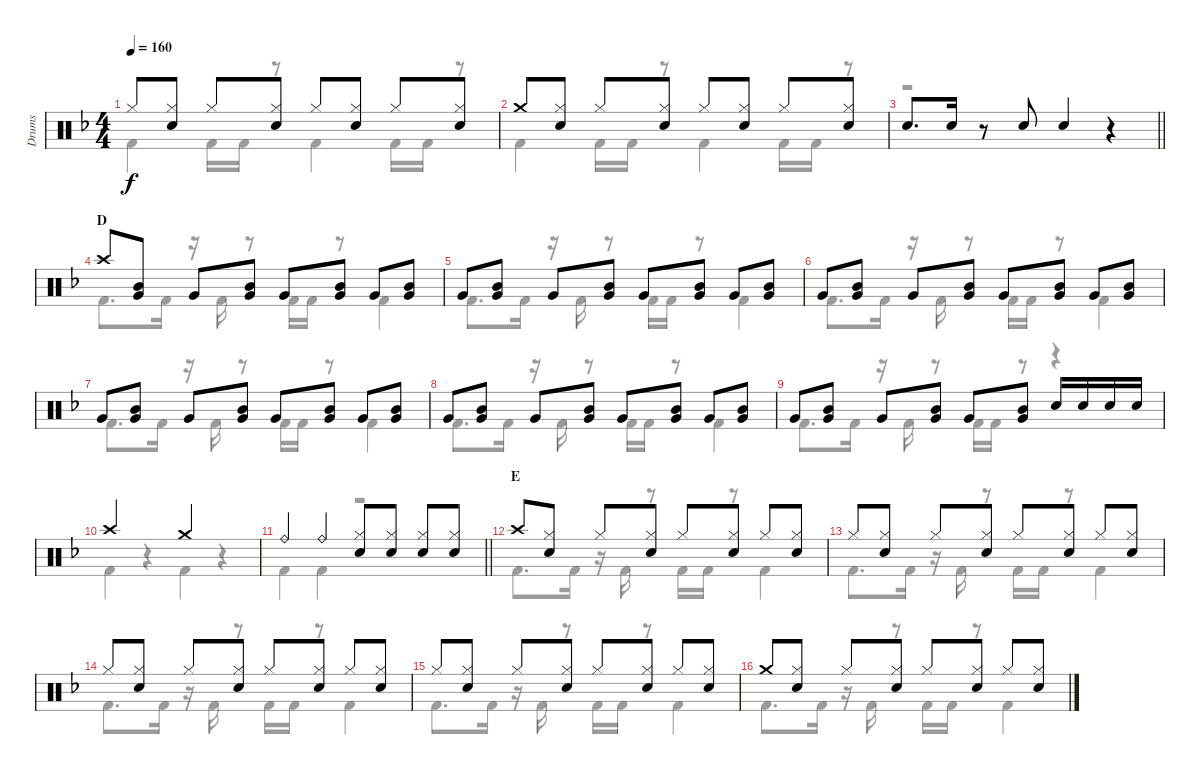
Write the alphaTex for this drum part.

\track ("Drums" "Drums") {instrument percussion}
\staff {score}
\articulation defaults
\voice
\ts (4 4)
\tempo 160
\clef neutral
\ks f "Hi-Hat (closed)".8{dy f}
("Hi-Hat (closed)" "Snare (hit) 2").8 "Hi-Hat (closed)".8 ("Hi-Hat (closed)" "Snare (hit) 2").8 "Hi-Hat (closed)".8 ("Hi-Hat (closed)" "Snare (hit) 2").8 "Hi-Hat (closed)".8 ("Hi-Hat (closed)" "Snare (hit) 2").8 |
"Crash medium (hit)".8 ("Hi-Hat (closed)" "Snare (hit) 2").8 "Hi-Hat (closed)".8 ("Hi-Hat (closed)" "Snare (hit) 2").8 "Hi-Hat (closed)".8 ("Hi-Hat (closed)" "Snare (hit) 2").8 "Hi-Hat (closed)".8 ("Hi-Hat (closed)" "Snare (hit) 2").8 |
\barLineRight lightlight "Snare (hit) 2".8{d} "Snare (hit) 2".16
r.8 "Snare (hit) 2".8 "Snare (hit) 2".4 r.4 |
\section ("" "D")
"Crash high (hit)".8 ("Mid Tom (hit)" "Very Low Tom (hit)").8 "Very Low Tom (hit)".8 ("Mid Tom (hit)" "Very Low Tom (hit)").8 "Very Low Tom (hit)".8 ("Mid Tom (hit)" "Very Low Tom (hit)").8 "Very Low Tom (hit)".8 ("Mid Tom (hit)" "Very Low Tom (hit)").8 |
"Very Low Tom (hit)".8 ("Mid Tom (hit)" "Very Low Tom (hit)").8 "Very Low Tom (hit)".8 ("Mid Tom (hit)" "Very Low Tom (hit)").8 "Very Low Tom (hit)".8 ("Mid Tom (hit)" "Very Low Tom (hit)").8 "Very Low Tom (hit)".8 ("Mid Tom (hit)" "Very Low Tom (hit)").8 |
"Very Low Tom (hit)".8 ("Mid Tom (hit)" "Very Low Tom (hit)").8 "Very Low Tom (hit)".8 ("Mid Tom (hit)" "Very Low Tom (hit)").8 "Very Low Tom (hit)".8 ("Mid Tom (hit)" "Very Low Tom (hit)").8 "Very Low Tom (hit)".8 ("Mid Tom (hit)" "Very Low Tom (hit)").8 |
"Very Low Tom (hit)".8 ("Mid Tom (hit)" "Very Low Tom (hit)").8 "Very Low Tom (hit)".8 ("Mid Tom (hit)" "Very Low Tom (hit)").8 "Very Low Tom (hit)".8 ("Mid Tom (hit)" "Very Low Tom (hit)").8 "Very Low Tom (hit)".8 ("Mid Tom (hit)" "Very Low Tom (hit)").8 |
"Very Low Tom (hit)".8 ("Mid Tom (hit)" "Very Low Tom (hit)").8 "Very Low Tom (hit)".8 ("Mid Tom (hit)" "Very Low Tom (hit)").8 "Very Low Tom (hit)".8 ("Mid Tom (hit)" "Very Low Tom (hit)").8 "Very Low Tom (hit)".8 ("Mid Tom (hit)" "Very Low Tom (hit)").8 |
"Very Low Tom (hit)".8 ("Mid Tom (hit)" "Very Low Tom (hit)").8 "Very Low Tom (hit)".8 ("Mid Tom (hit)" "Very Low Tom (hit)").8 "Very Low Tom (hit)".8 ("Mid Tom (hit)" "Very Low Tom (hit)").8 "Snare (hit) 2".16 "Snare (hit) 2".16 "Snare (hit) 2".16 "Snare (hit) 2".16 |
"Crash high (hit)".2 "Crash medium (hit)".2 |
\barLineRight lightlight "Ride (bell)".4 "Ride (bell)".4
("Hi-Hat (closed)" "Snare (hit) 2").8 ("Hi-Hat (closed)" "Snare (hit) 2").8 ("Hi-Hat (closed)" "Snare (hit) 2").8 ("Hi-Hat (closed)" "Snare (hit) 2").8 |
\section ("" "E")
"Crash high (hit)".8 ("Hi-Hat (closed)" "Snare (hit) 2").8 "Hi-Hat (closed)".8 ("Hi-Hat (closed)" "Snare (hit) 2").8 "Hi-Hat (closed)".8 ("Hi-Hat (closed)" "Snare (hit) 2").8 "Hi-Hat (closed)".8 ("Hi-Hat (closed)" "Snare (hit) 2").8 |
"Hi-Hat (closed)".8 ("Hi-Hat (closed)" "Snare (hit) 2").8 "Hi-Hat (closed)".8 ("Hi-Hat (closed)" "Snare (hit) 2").8 "Hi-Hat (closed)".8 ("Hi-Hat (closed)" "Snare (hit) 2").8 "Hi-Hat (closed)".8 ("Hi-Hat (closed)" "Snare (hit) 2").8 |
"Hi-Hat (closed)".8 ("Hi-Hat (closed)" "Snare (hit) 2").8 "Hi-Hat (closed)".8 ("Hi-Hat (closed)" "Snare (hit) 2").8 "Hi-Hat (closed)".8 ("Hi-Hat (closed)" "Snare (hit) 2").8 "Hi-Hat (closed)".8 ("Hi-Hat (closed)" "Snare (hit) 2").8 |
"Hi-Hat (closed)".8 ("Hi-Hat (closed)" "Snare (hit) 2").8 "Hi-Hat (closed)".8 ("Hi-Hat (closed)" "Snare (hit) 2").8 "Hi-Hat (closed)".8 ("Hi-Hat (closed)" "Snare (hit) 2").8 "Hi-Hat (closed)".8 ("Hi-Hat (closed)" "Snare (hit) 2").8 |
"Crash medium (hit)".8 ("Hi-Hat (closed)" "Snare (hit) 2").8 "Hi-Hat (closed)".8 ("Hi-Hat (closed)" "Snare (hit) 2").8 "Hi-Hat (closed)".8 ("Hi-Hat (closed)" "Snare (hit) 2").8 "Hi-Hat (closed)".8 ("Hi-Hat (closed)" "Snare (hit) 2").8
\voice
\clef neutral
\ottava regular
\simile none
\ks f "Kick (hit) 2".4{dy f} "Kick (hit) 2".16 "Kick (hit) 2".16
r.8 "Kick (hit) 2".4 "Kick (hit) 2".16 "Kick (hit) 2".16 r.8 |
"Kick (hit) 2".4 "Kick (hit) 2".16 "Kick (hit) 2".16 r.8 "Kick (hit) 2".4 "Kick (hit) 2".16 "Kick (hit) 2".16 r.8 |
\barLineRight lightlight
r.1 |
"Kick (hit) 2".8{d} "Kick (hit) 2".16 r.16 "Kick (hit) 2".16 r.8 "Kick (hit) 2".16 "Kick (hit) 2".16 r.8 "Kick (hit) 2".4 |
"Kick (hit) 2".8{d} "Kick (hit) 2".16 r.16 "Kick (hit) 2".16 r.8 "Kick (hit) 2".16 "Kick (hit) 2".16 r.8 "Kick (hit) 2".4 |
"Kick (hit) 2".8{d} "Kick (hit) 2".16 r.16 "Kick (hit) 2".16 r.8 "Kick (hit) 2".16 "Kick (hit) 2".16 r.8 "Kick (hit) 2".4 |
"Kick (hit) 2".8{d} "Kick (hit) 2".16 r.16 "Kick (hit) 2".16 r.8 "Kick (hit) 2".16 "Kick (hit) 2".16 r.8 "Kick (hit) 2".4 |
"Kick (hit) 2".8{d} "Kick (hit) 2".16 r.16 "Kick (hit) 2".16 r.8 "Kick (hit) 2".16 "Kick (hit) 2".16 r.8 "Kick (hit) 2".4 |
"Kick (hit) 2".8{d} "Kick (hit) 2".16 r.16 "Kick (hit) 2".16 r.8 "Kick (hit) 2".16 "Kick (hit) 2".16 r.8 r.4 |
"Kick (hit) 2".4 r.4 "Kick (hit) 2".4 r.4 |
\barLineRight lightlight "Kick (hit) 2".4 "Kick (hit) 2".4
r.2 |
"Kick (hit) 2".8{d} "Kick (hit) 2".16 r.16 "Kick (hit) 2".16 r.8 "Kick (hit) 2".16 "Kick (hit) 2".16 r.8 "Kick (hit) 2".4 |
"Kick (hit) 2".8{d} "Kick (hit) 2".16 r.16 "Kick (hit) 2".16 r.8 "Kick (hit) 2".16 "Kick (hit) 2".16 r.8 "Kick (hit) 2".4 |
"Kick (hit) 2".8{d} "Kick (hit) 2".16 r.16 "Kick (hit) 2".16 r.8 "Kick (hit) 2".16 "Kick (hit) 2".16 r.8 "Kick (hit) 2".4 |
"Kick (hit) 2".8{d} "Kick (hit) 2".16 r.16 "Kick (hit) 2".16 r.8 "Kick (hit) 2".16 "Kick (hit) 2".16 r.8 "Kick (hit) 2".4 |
"Kick (hit) 2".8{d} "Kick (hit) 2".16 r.16 "Kick (hit) 2".16 r.8 "Kick (hit) 2".16 "Kick (hit) 2".16 r.8 "Kick (hit) 2".4
